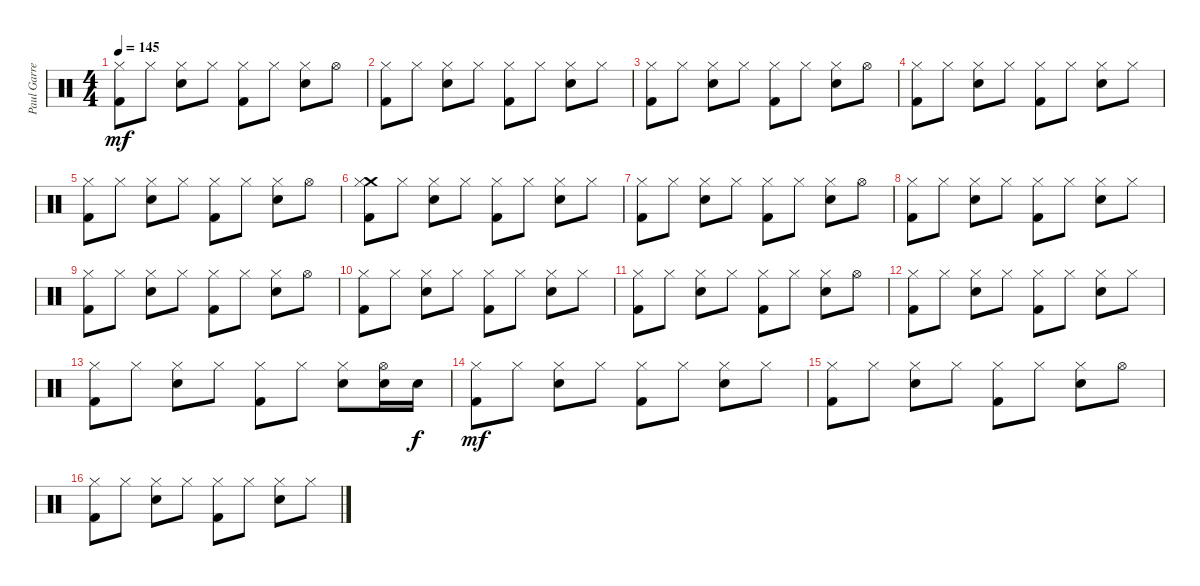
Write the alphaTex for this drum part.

\track ("Paul Garred (Percussion)" "Paul Garre") {instrument percussion}
\staff {score}
\articulation defaults
\ts (4 4)
\tempo 145
\clef neutral
\ks c
("Hi-Hat (closed)" "Kick (hit) 2").8{dy mf} "Hi-Hat (closed)".8 ("Hi-Hat (closed)" "Snare (hit) 2").8 "Hi-Hat (closed)".8 ("Hi-Hat (closed)" "Kick (hit) 2").8 "Hi-Hat (closed)".8 ("Hi-Hat (closed)" "Snare (hit) 2").8 "Hi-Hat (open)".8 |
("Hi-Hat (closed)" "Kick (hit) 2").8 "Hi-Hat (closed)".8 ("Hi-Hat (closed)" "Snare (hit) 2").8 "Hi-Hat (closed)".8 ("Hi-Hat (closed)" "Kick (hit) 2").8 "Hi-Hat (closed)".8 ("Hi-Hat (closed)" "Snare (hit) 2").8 "Hi-Hat (closed)".8 |
("Hi-Hat (closed)" "Kick (hit) 2").8 "Hi-Hat (closed)".8 ("Hi-Hat (closed)" "Snare (hit) 2").8 "Hi-Hat (closed)".8 ("Hi-Hat (closed)" "Kick (hit) 2").8 "Hi-Hat (closed)".8 ("Hi-Hat (closed)" "Snare (hit) 2").8 "Hi-Hat (open)".8 |
("Hi-Hat (closed)" "Kick (hit) 2").8 "Hi-Hat (closed)".8 ("Hi-Hat (closed)" "Snare (hit) 2").8 "Hi-Hat (closed)".8 ("Hi-Hat (closed)" "Kick (hit) 2").8 "Hi-Hat (closed)".8 ("Hi-Hat (closed)" "Snare (hit) 2").8 "Hi-Hat (closed)".8 |
("Hi-Hat (closed)" "Kick (hit) 2").8 "Hi-Hat (closed)".8 ("Hi-Hat (closed)" "Snare (hit) 2").8 "Hi-Hat (closed)".8 ("Hi-Hat (closed)" "Kick (hit) 2").8 "Hi-Hat (closed)".8 ("Hi-Hat (closed)" "Snare (hit) 2").8 "Hi-Hat (open)".8 |
("Crash medium (hit)" "Hi-Hat (closed)" "Kick (hit) 2").8 "Hi-Hat (closed)".8 ("Hi-Hat (closed)" "Snare (hit) 2").8 "Hi-Hat (closed)".8 ("Hi-Hat (closed)" "Kick (hit) 2").8 "Hi-Hat (closed)".8 ("Hi-Hat (closed)" "Snare (hit) 2").8 "Hi-Hat (closed)".8 |
("Hi-Hat (closed)" "Kick (hit) 2").8 "Hi-Hat (closed)".8 ("Hi-Hat (closed)" "Snare (hit) 2").8 "Hi-Hat (closed)".8 ("Hi-Hat (closed)" "Kick (hit) 2").8 "Hi-Hat (closed)".8 ("Hi-Hat (closed)" "Snare (hit) 2").8 "Hi-Hat (open)".8 |
("Hi-Hat (closed)" "Kick (hit) 2").8 "Hi-Hat (closed)".8 ("Hi-Hat (closed)" "Snare (hit) 2").8 "Hi-Hat (closed)".8 ("Hi-Hat (closed)" "Kick (hit) 2").8 "Hi-Hat (closed)".8 ("Hi-Hat (closed)" "Snare (hit) 2").8 "Hi-Hat (closed)".8 |
("Hi-Hat (closed)" "Kick (hit) 2").8 "Hi-Hat (closed)".8 ("Hi-Hat (closed)" "Snare (hit) 2").8 "Hi-Hat (closed)".8 ("Hi-Hat (closed)" "Kick (hit) 2").8 "Hi-Hat (closed)".8 ("Hi-Hat (closed)" "Snare (hit) 2").8 "Hi-Hat (open)".8 |
("Hi-Hat (closed)" "Kick (hit) 2").8 "Hi-Hat (closed)".8 ("Hi-Hat (closed)" "Snare (hit) 2").8 "Hi-Hat (closed)".8 ("Hi-Hat (closed)" "Kick (hit) 2").8 "Hi-Hat (closed)".8 ("Hi-Hat (closed)" "Snare (hit) 2").8 "Hi-Hat (closed)".8 |
("Hi-Hat (closed)" "Kick (hit) 2").8 "Hi-Hat (closed)".8 ("Hi-Hat (closed)" "Snare (hit) 2").8 "Hi-Hat (closed)".8 ("Hi-Hat (closed)" "Kick (hit) 2").8 "Hi-Hat (closed)".8 ("Hi-Hat (closed)" "Snare (hit) 2").8 "Hi-Hat (open)".8 |
("Hi-Hat (closed)" "Kick (hit) 2").8 "Hi-Hat (closed)".8 ("Hi-Hat (closed)" "Snare (hit) 2").8 "Hi-Hat (closed)".8 ("Hi-Hat (closed)" "Kick (hit) 2").8 "Hi-Hat (closed)".8 ("Hi-Hat (closed)" "Snare (hit) 2").8 "Hi-Hat (closed)".8 |
("Hi-Hat (closed)" "Kick (hit) 2").8 "Hi-Hat (closed)".8 ("Hi-Hat (closed)" "Snare (hit) 2").8 "Hi-Hat (closed)".8 ("Hi-Hat (closed)" "Kick (hit) 2").8 "Hi-Hat (closed)".8 ("Hi-Hat (closed)" "Snare (hit) 2").8 ("Hi-Hat (open)" "Snare (hit) 2").16 "Snare (hit) 2".16{dy f} |
("Hi-Hat (closed)" "Kick (hit) 2").8{dy mf} "Hi-Hat (closed)".8 ("Hi-Hat (closed)" "Snare (hit) 2").8 "Hi-Hat (closed)".8 ("Hi-Hat (closed)" "Kick (hit) 2").8 "Hi-Hat (closed)".8 ("Hi-Hat (closed)" "Snare (hit) 2").8 "Hi-Hat (closed)".8 |
("Hi-Hat (closed)" "Kick (hit) 2").8 "Hi-Hat (closed)".8 ("Hi-Hat (closed)" "Snare (hit) 2").8 "Hi-Hat (closed)".8 ("Hi-Hat (closed)" "Kick (hit) 2").8 "Hi-Hat (closed)".8 ("Hi-Hat (closed)" "Snare (hit) 2").8 "Hi-Hat (open)".8 |
("Hi-Hat (closed)" "Kick (hit) 2").8 "Hi-Hat (closed)".8 ("Hi-Hat (closed)" "Snare (hit) 2").8 "Hi-Hat (closed)".8 ("Hi-Hat (closed)" "Kick (hit) 2").8 "Hi-Hat (closed)".8 ("Hi-Hat (closed)" "Snare (hit) 2").8 "Hi-Hat (closed)".8
